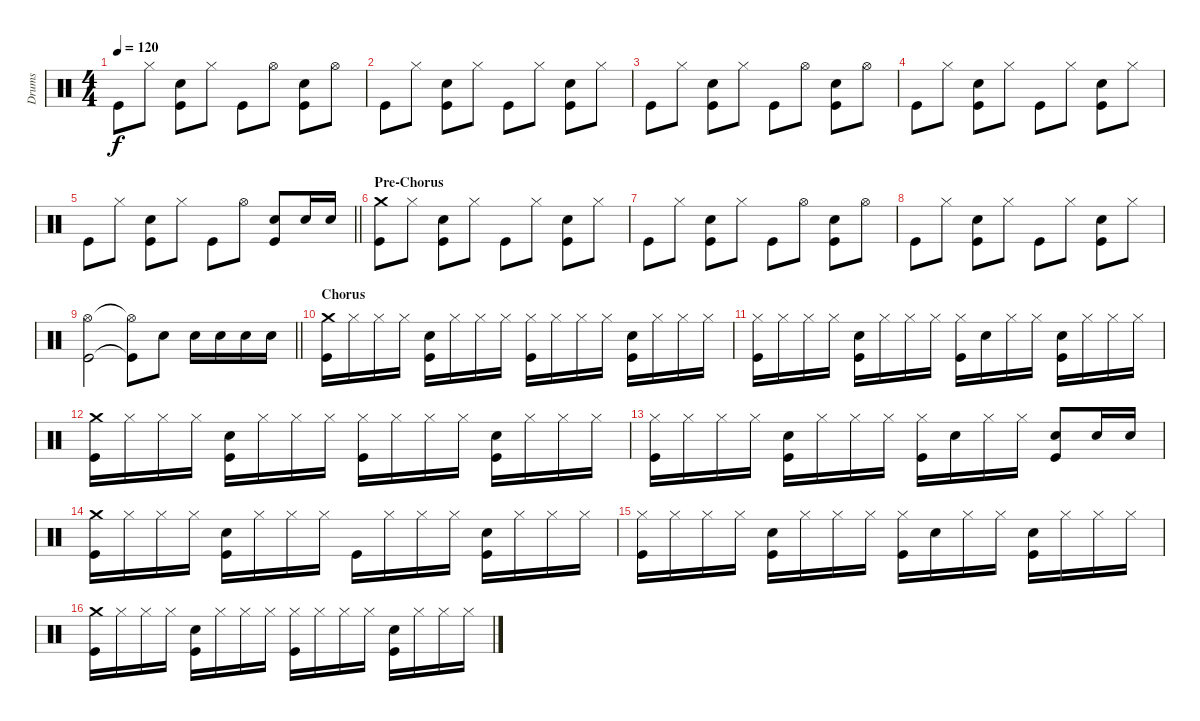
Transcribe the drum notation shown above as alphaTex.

\track ("Drums" "Drums") {instrument percussion}
\staff {score}
\articulation defaults
\ts (4 4)
\tempo 120
\clef neutral
\ks c "Kick (hit)".8{dy f} "Hi-Hat (closed)".8
("Kick (hit)" "Snare (hit) 2").8 "Hi-Hat (closed)".8 "Kick (hit)".8 "Hi-Hat (open)".8 ("Kick (hit)" "Snare (hit) 2").8 "Hi-Hat (open)".8 |
"Kick (hit)".8 "Hi-Hat (closed)".8 ("Kick (hit)" "Snare (hit) 2").8 "Hi-Hat (closed)".8 "Kick (hit)".8 "Hi-Hat (closed)".8 ("Kick (hit)" "Snare (hit) 2").8 "Hi-Hat (closed)".8 |
"Kick (hit)".8 "Hi-Hat (closed)".8 ("Kick (hit)" "Snare (hit) 2").8 "Hi-Hat (closed)".8 "Kick (hit)".8 "Hi-Hat (open)".8 ("Kick (hit)" "Snare (hit) 2").8 "Hi-Hat (open)".8 |
"Kick (hit)".8 "Hi-Hat (closed)".8 ("Kick (hit)" "Snare (hit) 2").8 "Hi-Hat (closed)".8 "Kick (hit)".8 "Hi-Hat (closed)".8 ("Kick (hit)" "Snare (hit) 2").8 "Hi-Hat (closed)".8 |
\barLineRight lightlight "Kick (hit)".8 "Hi-Hat (closed)".8
("Kick (hit)" "Snare (hit) 2").8 "Hi-Hat (closed)".8 "Kick (hit)".8 "Hi-Hat (open)".8 ("Kick (hit)" "Snare (hit) 2").8 "Snare (hit) 2".16 "Snare (hit) 2".16 |
\section ("" "Pre-Chorus")
("Crash medium (hit)" "Kick (hit)").8 "Hi-Hat (closed)".8 ("Kick (hit)" "Snare (hit) 2").8 "Hi-Hat (closed)".8 "Kick (hit)".8 "Hi-Hat (closed)".8 ("Kick (hit)" "Snare (hit) 2").8 "Hi-Hat (closed)".8 |
"Kick (hit)".8 "Hi-Hat (closed)".8 ("Kick (hit)" "Snare (hit) 2").8 "Hi-Hat (closed)".8 "Kick (hit)".8 "Hi-Hat (open)".8 ("Kick (hit)" "Snare (hit) 2").8 "Hi-Hat (open)".8 |
"Kick (hit)".8 "Hi-Hat (closed)".8 ("Kick (hit)" "Snare (hit) 2").8 "Hi-Hat (closed)".8 "Kick (hit)".8 "Hi-Hat (closed)".8 ("Kick (hit)" "Snare (hit) 2").8 "Hi-Hat (closed)".8 |
\barLineRight lightlight
("Hi-Hat (open)" "Kick (hit)").2 ("Hi-Hat (open)"{t} "Kick (hit)"{t}).8 "Snare (hit) 2".8 "Snare (hit) 2".16 "Snare (hit) 2".16 "Snare (hit) 2".16 "Snare (hit) 2".16 |
\section ("" "Chorus")
("Crash medium (hit)" "Kick (hit)").16 "Hi-Hat (closed)".16 "Hi-Hat (closed)".16 "Hi-Hat (closed)".16 ("Kick (hit)" "Snare (hit) 2").16 "Hi-Hat (closed)".16 "Hi-Hat (closed)".16 "Hi-Hat (closed)".16 ("Hi-Hat (closed)" "Kick (hit)").16 "Hi-Hat (closed)".16 "Hi-Hat (closed)".16 "Hi-Hat (closed)".16 ("Kick (hit)" "Snare (hit) 2").16 "Hi-Hat (closed)".16 "Hi-Hat (closed)".16 "Hi-Hat (closed)".16 |
("Hi-Hat (closed)" "Kick (hit)").16 "Hi-Hat (closed)".16 "Hi-Hat (closed)".16 "Hi-Hat (closed)".16 ("Kick (hit)" "Snare (hit) 2").16 "Hi-Hat (closed)".16 "Hi-Hat (closed)".16 "Hi-Hat (closed)".16 ("Hi-Hat (closed)" "Kick (hit)").16 "Snare (hit) 2".16 "Hi-Hat (closed)".16 "Hi-Hat (closed)".16 ("Kick (hit)" "Snare (hit) 2").16 "Hi-Hat (closed)".16 "Hi-Hat (closed)".16 "Hi-Hat (closed)".16 |
("Crash medium (hit)" "Kick (hit)").16 "Hi-Hat (closed)".16 "Hi-Hat (closed)".16 "Hi-Hat (closed)".16 ("Kick (hit)" "Snare (hit) 2").16 "Hi-Hat (closed)".16 "Hi-Hat (closed)".16 "Hi-Hat (closed)".16 ("Hi-Hat (closed)" "Kick (hit)").16 "Hi-Hat (closed)".16 "Hi-Hat (closed)".16 "Hi-Hat (closed)".16 ("Kick (hit)" "Snare (hit) 2").16 "Hi-Hat (closed)".16 "Hi-Hat (closed)".16 "Hi-Hat (closed)".16 |
("Hi-Hat (closed)" "Kick (hit)").16 "Hi-Hat (closed)".16 "Hi-Hat (closed)".16 "Hi-Hat (closed)".16 ("Kick (hit)" "Snare (hit) 2").16 "Hi-Hat (closed)".16 "Hi-Hat (closed)".16 "Hi-Hat (closed)".16 ("Hi-Hat (closed)" "Kick (hit)").16 "Snare (hit) 2".16 "Hi-Hat (closed)".16 "Hi-Hat (closed)".16 ("Kick (hit)" "Snare (hit) 2").8 "Snare (hit) 2".16 "Snare (hit) 2".16 |
("Crash medium (hit)" "Kick (hit)").16 "Hi-Hat (closed)".16 "Hi-Hat (closed)".16 "Hi-Hat (closed)".16 ("Kick (hit)" "Snare (hit) 2").16 "Hi-Hat (closed)".16 "Hi-Hat (closed)".16 "Hi-Hat (closed)".16 "Kick (hit)".16 "Hi-Hat (closed)".16 "Hi-Hat (closed)".16 "Hi-Hat (closed)".16 ("Kick (hit)" "Snare (hit) 2").16 "Hi-Hat (closed)".16 "Hi-Hat (closed)".16 "Hi-Hat (closed)".16 |
("Hi-Hat (closed)" "Kick (hit)").16 "Hi-Hat (closed)".16 "Hi-Hat (closed)".16 "Hi-Hat (closed)".16 ("Kick (hit)" "Snare (hit) 2").16 "Hi-Hat (closed)".16 "Hi-Hat (closed)".16 "Hi-Hat (closed)".16 ("Hi-Hat (closed)" "Kick (hit)").16 "Snare (hit) 2".16 "Hi-Hat (closed)".16 "Hi-Hat (closed)".16 ("Kick (hit)" "Snare (hit) 2").16 "Hi-Hat (closed)".16 "Hi-Hat (closed)".16 "Hi-Hat (closed)".16 |
("Crash medium (hit)" "Kick (hit)").16 "Hi-Hat (closed)".16 "Hi-Hat (closed)".16 "Hi-Hat (closed)".16 ("Kick (hit)" "Snare (hit) 2").16 "Hi-Hat (closed)".16 "Hi-Hat (closed)".16 "Hi-Hat (closed)".16 ("Hi-Hat (closed)" "Kick (hit)").16 "Hi-Hat (closed)".16 "Hi-Hat (closed)".16 "Hi-Hat (closed)".16 ("Kick (hit)" "Snare (hit) 2").16 "Hi-Hat (closed)".16 "Hi-Hat (closed)".16 "Hi-Hat (closed)".16
